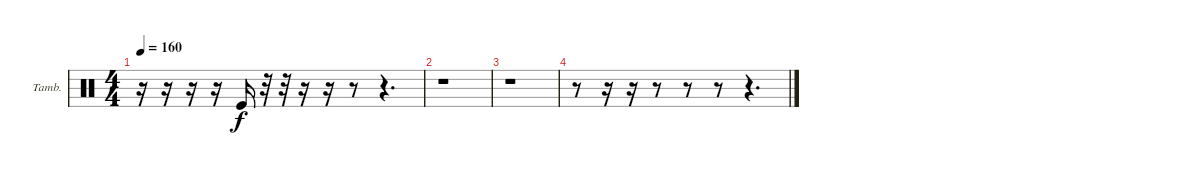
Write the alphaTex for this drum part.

\bracketExtendMode groupsimilarinstruments
\firstSystemTrackNameOrientation horizontal
\otherSystemsTrackNameOrientation horizontal
\track ("Tambourine" "Tamb.") {mute instrument percussion}
\staff {score}
\articulation defaults
\ts (4 4)
\tempo 160
\clef neutral
\ks c
r.16{dy f} r.16 r.16 r.16 "Kick (hit)".16 r.32 r.32 r.16 r.16 r.8 r.4{d} |
r.1 |
r.1 |
r.8 r.16 r.16 r.8 r.8 r.8 r.4{d}
